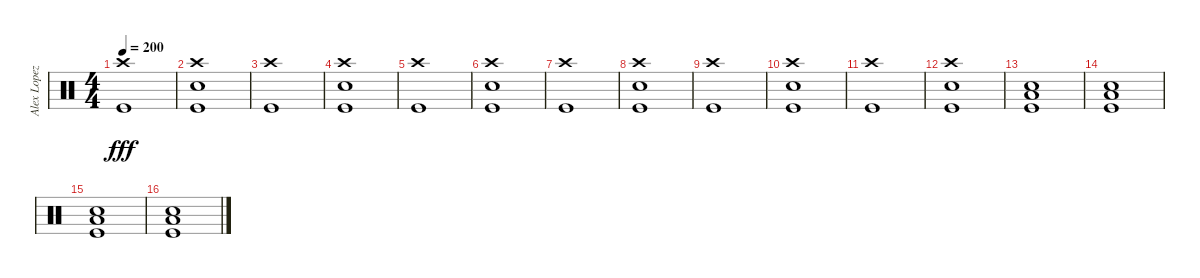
\track ("Alex Lopez" "Alex Lopez") {instrument percussion}
\staff {score}
\articulation defaults
\ts (4 4)
\tempo 200
\clef neutral
\ks c
("Crash high (hit)" "Kick (hit)").1{dy fff} |
("Crash high (hit)" "Snare (hit) 2" "Kick (hit)").1 |
("Crash high (hit)" "Kick (hit)").1 |
("Crash high (hit)" "Snare (hit) 2" "Kick (hit)").1 |
("Crash high (hit)" "Kick (hit)").1 |
("Crash high (hit)" "Snare (hit) 2" "Kick (hit)").1 |
("Crash high (hit)" "Kick (hit)").1 |
("Crash high (hit)" "Snare (hit) 2" "Kick (hit)").1 |
("Crash high (hit)" "Kick (hit)").1 |
("Crash high (hit)" "Snare (hit) 2" "Kick (hit)").1 |
("Crash high (hit)" "Kick (hit)").1 |
("Crash high (hit)" "Snare (hit) 2" "Kick (hit)").1 |
("Low Floor Tom (hit)" "Snare (hit) 2" "Kick (hit)").1 |
("Low Floor Tom (hit)" "Snare (hit) 2" "Kick (hit)").1 |
("Low Floor Tom (hit)" "Snare (hit) 2" "Kick (hit)").1 |
("Low Floor Tom (hit)" "Snare (hit) 2" "Kick (hit)").1
